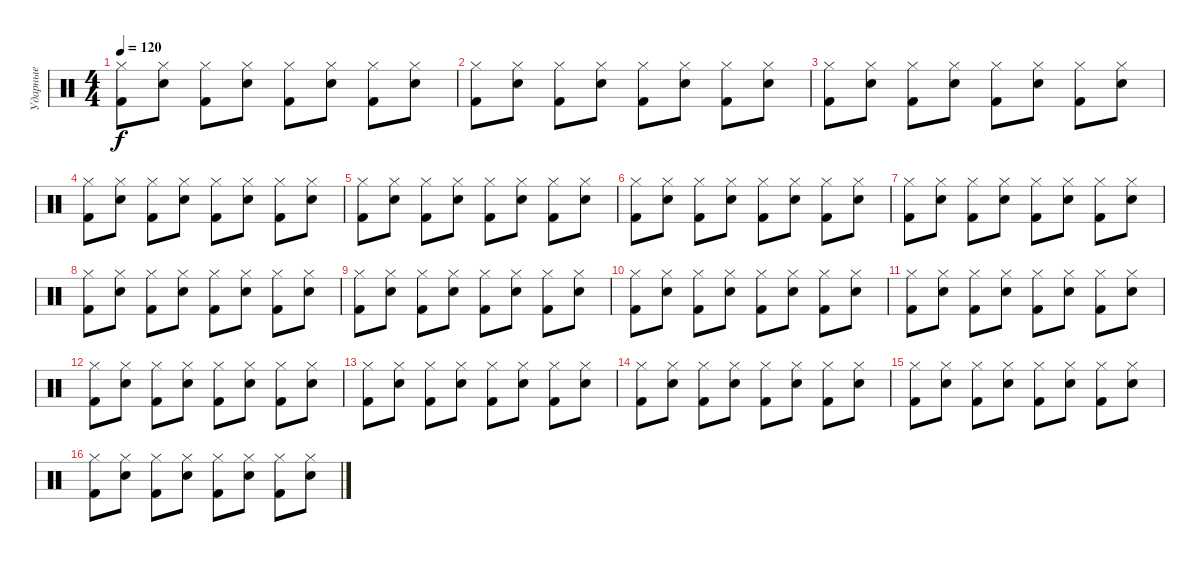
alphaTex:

\track ("Ударные" "Ударные") {instrument percussion}
\staff {score}
\articulation defaults
\ts (4 4)
\tempo 120
\clef neutral
\ks c
("Hi-Hat (closed)" "Kick (hit) 2").8{dy f} ("Hi-Hat (closed)" "Electric Snare (hit)").8 ("Hi-Hat (closed)" "Kick (hit) 2").8 ("Hi-Hat (closed)" "Electric Snare (hit)").8 ("Hi-Hat (closed)" "Kick (hit) 2").8 ("Hi-Hat (closed)" "Electric Snare (hit)").8 ("Hi-Hat (closed)" "Kick (hit) 2").8 ("Hi-Hat (closed)" "Electric Snare (hit)").8 |
("Hi-Hat (closed)" "Kick (hit) 2").8 ("Hi-Hat (closed)" "Electric Snare (hit)").8 ("Hi-Hat (closed)" "Kick (hit) 2").8 ("Hi-Hat (closed)" "Electric Snare (hit)").8 ("Hi-Hat (closed)" "Kick (hit) 2").8 ("Hi-Hat (closed)" "Electric Snare (hit)").8 ("Hi-Hat (closed)" "Kick (hit) 2").8 ("Hi-Hat (closed)" "Electric Snare (hit)").8 |
("Hi-Hat (closed)" "Kick (hit) 2").8 ("Hi-Hat (closed)" "Electric Snare (hit)").8 ("Hi-Hat (closed)" "Kick (hit) 2").8 ("Hi-Hat (closed)" "Electric Snare (hit)").8 ("Hi-Hat (closed)" "Kick (hit) 2").8 ("Hi-Hat (closed)" "Electric Snare (hit)").8 ("Hi-Hat (closed)" "Kick (hit) 2").8 ("Hi-Hat (closed)" "Electric Snare (hit)").8 |
("Hi-Hat (closed)" "Kick (hit) 2").8 ("Hi-Hat (closed)" "Electric Snare (hit)").8 ("Hi-Hat (closed)" "Kick (hit) 2").8 ("Hi-Hat (closed)" "Electric Snare (hit)").8 ("Hi-Hat (closed)" "Kick (hit) 2").8 ("Hi-Hat (closed)" "Electric Snare (hit)").8 ("Hi-Hat (closed)" "Kick (hit) 2").8 ("Hi-Hat (closed)" "Electric Snare (hit)").8 |
("Hi-Hat (closed)" "Kick (hit) 2").8 ("Hi-Hat (closed)" "Electric Snare (hit)").8 ("Hi-Hat (closed)" "Kick (hit) 2").8 ("Hi-Hat (closed)" "Electric Snare (hit)").8 ("Hi-Hat (closed)" "Kick (hit) 2").8 ("Hi-Hat (closed)" "Electric Snare (hit)").8 ("Hi-Hat (closed)" "Kick (hit) 2").8 ("Hi-Hat (closed)" "Electric Snare (hit)").8 |
("Hi-Hat (closed)" "Kick (hit) 2").8 ("Hi-Hat (closed)" "Electric Snare (hit)").8 ("Hi-Hat (closed)" "Kick (hit) 2").8 ("Hi-Hat (closed)" "Electric Snare (hit)").8 ("Hi-Hat (closed)" "Kick (hit) 2").8 ("Hi-Hat (closed)" "Electric Snare (hit)").8 ("Hi-Hat (closed)" "Kick (hit) 2").8 ("Hi-Hat (closed)" "Electric Snare (hit)").8 |
("Hi-Hat (closed)" "Kick (hit) 2").8 ("Hi-Hat (closed)" "Electric Snare (hit)").8 ("Hi-Hat (closed)" "Kick (hit) 2").8 ("Hi-Hat (closed)" "Electric Snare (hit)").8 ("Hi-Hat (closed)" "Kick (hit) 2").8 ("Hi-Hat (closed)" "Electric Snare (hit)").8 ("Hi-Hat (closed)" "Kick (hit) 2").8 ("Hi-Hat (closed)" "Electric Snare (hit)").8 |
("Hi-Hat (closed)" "Kick (hit) 2").8 ("Hi-Hat (closed)" "Electric Snare (hit)").8 ("Hi-Hat (closed)" "Kick (hit) 2").8 ("Hi-Hat (closed)" "Electric Snare (hit)").8 ("Hi-Hat (closed)" "Kick (hit) 2").8 ("Hi-Hat (closed)" "Electric Snare (hit)").8 ("Hi-Hat (closed)" "Kick (hit) 2").8 ("Hi-Hat (closed)" "Electric Snare (hit)").8 |
("Hi-Hat (closed)" "Kick (hit) 2").8 ("Hi-Hat (closed)" "Electric Snare (hit)").8 ("Hi-Hat (closed)" "Kick (hit) 2").8 ("Hi-Hat (closed)" "Electric Snare (hit)").8 ("Hi-Hat (closed)" "Kick (hit) 2").8 ("Hi-Hat (closed)" "Electric Snare (hit)").8 ("Hi-Hat (closed)" "Kick (hit) 2").8 ("Hi-Hat (closed)" "Electric Snare (hit)").8 |
("Hi-Hat (closed)" "Kick (hit) 2").8 ("Hi-Hat (closed)" "Electric Snare (hit)").8 ("Hi-Hat (closed)" "Kick (hit) 2").8 ("Hi-Hat (closed)" "Electric Snare (hit)").8 ("Hi-Hat (closed)" "Kick (hit) 2").8 ("Hi-Hat (closed)" "Electric Snare (hit)").8 ("Hi-Hat (closed)" "Kick (hit) 2").8 ("Hi-Hat (closed)" "Electric Snare (hit)").8 |
("Hi-Hat (closed)" "Kick (hit) 2").8 ("Hi-Hat (closed)" "Electric Snare (hit)").8 ("Hi-Hat (closed)" "Kick (hit) 2").8 ("Hi-Hat (closed)" "Electric Snare (hit)").8 ("Hi-Hat (closed)" "Kick (hit) 2").8 ("Hi-Hat (closed)" "Electric Snare (hit)").8 ("Hi-Hat (closed)" "Kick (hit) 2").8 ("Hi-Hat (closed)" "Electric Snare (hit)").8 |
("Hi-Hat (closed)" "Kick (hit) 2").8 ("Hi-Hat (closed)" "Electric Snare (hit)").8 ("Hi-Hat (closed)" "Kick (hit) 2").8 ("Hi-Hat (closed)" "Electric Snare (hit)").8 ("Hi-Hat (closed)" "Kick (hit) 2").8 ("Hi-Hat (closed)" "Electric Snare (hit)").8 ("Hi-Hat (closed)" "Kick (hit) 2").8 ("Hi-Hat (closed)" "Electric Snare (hit)").8 |
("Hi-Hat (closed)" "Kick (hit) 2").8 ("Hi-Hat (closed)" "Electric Snare (hit)").8 ("Hi-Hat (closed)" "Kick (hit) 2").8 ("Hi-Hat (closed)" "Electric Snare (hit)").8 ("Hi-Hat (closed)" "Kick (hit) 2").8 ("Hi-Hat (closed)" "Electric Snare (hit)").8 ("Hi-Hat (closed)" "Kick (hit) 2").8 ("Hi-Hat (closed)" "Electric Snare (hit)").8 |
("Hi-Hat (closed)" "Kick (hit) 2").8 ("Hi-Hat (closed)" "Electric Snare (hit)").8 ("Hi-Hat (closed)" "Kick (hit) 2").8 ("Hi-Hat (closed)" "Electric Snare (hit)").8 ("Hi-Hat (closed)" "Kick (hit) 2").8 ("Hi-Hat (closed)" "Electric Snare (hit)").8 ("Hi-Hat (closed)" "Kick (hit) 2").8 ("Hi-Hat (closed)" "Electric Snare (hit)").8 |
("Hi-Hat (closed)" "Kick (hit) 2").8 ("Hi-Hat (closed)" "Electric Snare (hit)").8 ("Hi-Hat (closed)" "Kick (hit) 2").8 ("Hi-Hat (closed)" "Electric Snare (hit)").8 ("Hi-Hat (closed)" "Kick (hit) 2").8 ("Hi-Hat (closed)" "Electric Snare (hit)").8 ("Hi-Hat (closed)" "Kick (hit) 2").8 ("Hi-Hat (closed)" "Electric Snare (hit)").8 |
("Hi-Hat (closed)" "Kick (hit) 2").8 ("Hi-Hat (closed)" "Electric Snare (hit)").8 ("Hi-Hat (closed)" "Kick (hit) 2").8 ("Hi-Hat (closed)" "Electric Snare (hit)").8 ("Hi-Hat (closed)" "Kick (hit) 2").8 ("Hi-Hat (closed)" "Electric Snare (hit)").8 ("Hi-Hat (closed)" "Kick (hit) 2").8 ("Hi-Hat (closed)" "Electric Snare (hit)").8
